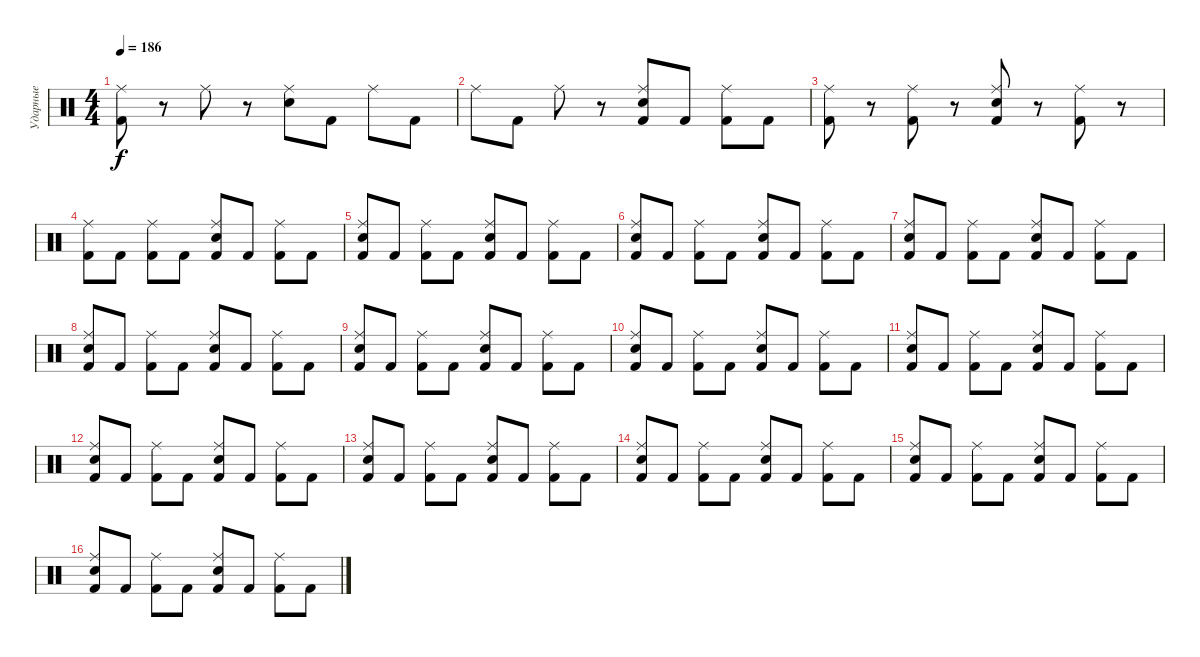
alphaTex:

\track ("Ударные" "Ударные") {instrument percussion}
\staff {score}
\articulation defaults
\ts (4 4)
\tempo 186
\clef neutral
\ks c
("Kick (hit) 2" "Ride (middle)").8{dy f} r.8 "Ride (middle)".8 r.8 ("Snare (hit) 2" "Ride (middle)").8 "Kick (hit) 2".8 "Ride (middle)".8 "Kick (hit) 2".8 |
"Ride (middle)".8 "Kick (hit) 2".8 "Ride (middle)".8 r.8 ("Kick (hit) 2" "Snare (hit) 2" "Ride (middle)").8 "Kick (hit) 2".8 ("Kick (hit) 2" "Ride (middle)").8 "Kick (hit) 2".8 |
("Kick (hit) 2" "Ride (middle)").8 r.8 ("Kick (hit) 2" "Ride (middle)").8 r.8 ("Kick (hit) 2" "Snare (hit) 2" "Ride (middle)").8 r.8 ("Kick (hit) 2" "Ride (middle)").8 r.8 |
("Kick (hit) 2" "Ride (middle)").8 "Kick (hit) 2".8 ("Kick (hit) 2" "Ride (middle)").8 "Kick (hit) 2".8 ("Kick (hit) 2" "Snare (hit) 2" "Ride (middle)").8 "Kick (hit) 2".8 ("Kick (hit) 2" "Ride (middle)").8 "Kick (hit) 2".8 |
("Ride (middle)" "Snare (hit) 2" "Kick (hit) 2").8 "Kick (hit) 2".8 ("Ride (middle)" "Kick (hit) 2").8 "Kick (hit) 2".8 ("Ride (middle)" "Snare (hit) 2" "Kick (hit) 2").8 "Kick (hit) 2".8 ("Ride (middle)" "Kick (hit) 2").8 "Kick (hit) 2".8 |
("Ride (middle)" "Snare (hit) 2" "Kick (hit) 2").8 "Kick (hit) 2".8 ("Ride (middle)" "Kick (hit) 2").8 "Kick (hit) 2".8 ("Ride (middle)" "Snare (hit) 2" "Kick (hit) 2").8 "Kick (hit) 2".8 ("Ride (middle)" "Kick (hit) 2").8 "Kick (hit) 2".8 |
("Ride (middle)" "Snare (hit) 2" "Kick (hit) 2").8 "Kick (hit) 2".8 ("Ride (middle)" "Kick (hit) 2").8 "Kick (hit) 2".8 ("Ride (middle)" "Snare (hit) 2" "Kick (hit) 2").8 "Kick (hit) 2".8 ("Ride (middle)" "Kick (hit) 2").8 "Kick (hit) 2".8 |
("Ride (middle)" "Snare (hit) 2" "Kick (hit) 2").8 "Kick (hit) 2".8 ("Ride (middle)" "Kick (hit) 2").8 "Kick (hit) 2".8 ("Ride (middle)" "Snare (hit) 2" "Kick (hit) 2").8 "Kick (hit) 2".8 ("Ride (middle)" "Kick (hit) 2").8 "Kick (hit) 2".8 |
("Ride (middle)" "Snare (hit) 2" "Kick (hit) 2").8 "Kick (hit) 2".8 ("Ride (middle)" "Kick (hit) 2").8 "Kick (hit) 2".8 ("Ride (middle)" "Snare (hit) 2" "Kick (hit) 2").8 "Kick (hit) 2".8 ("Ride (middle)" "Kick (hit) 2").8 "Kick (hit) 2".8 |
("Ride (middle)" "Snare (hit) 2" "Kick (hit) 2").8 "Kick (hit) 2".8 ("Ride (middle)" "Kick (hit) 2").8 "Kick (hit) 2".8 ("Ride (middle)" "Snare (hit) 2" "Kick (hit) 2").8 "Kick (hit) 2".8 ("Ride (middle)" "Kick (hit) 2").8 "Kick (hit) 2".8 |
("Ride (middle)" "Snare (hit) 2" "Kick (hit) 2").8 "Kick (hit) 2".8 ("Ride (middle)" "Kick (hit) 2").8 "Kick (hit) 2".8 ("Ride (middle)" "Snare (hit) 2" "Kick (hit) 2").8 "Kick (hit) 2".8 ("Ride (middle)" "Kick (hit) 2").8 "Kick (hit) 2".8 |
("Ride (middle)" "Snare (hit) 2" "Kick (hit) 2").8 "Kick (hit) 2".8 ("Ride (middle)" "Kick (hit) 2").8 "Kick (hit) 2".8 ("Ride (middle)" "Snare (hit) 2" "Kick (hit) 2").8 "Kick (hit) 2".8 ("Ride (middle)" "Kick (hit) 2").8 "Kick (hit) 2".8 |
("Ride (middle)" "Snare (hit) 2" "Kick (hit) 2").8 "Kick (hit) 2".8 ("Ride (middle)" "Kick (hit) 2").8 "Kick (hit) 2".8 ("Ride (middle)" "Snare (hit) 2" "Kick (hit) 2").8 "Kick (hit) 2".8 ("Ride (middle)" "Kick (hit) 2").8 "Kick (hit) 2".8 |
("Ride (middle)" "Snare (hit) 2" "Kick (hit) 2").8 "Kick (hit) 2".8 ("Ride (middle)" "Kick (hit) 2").8 "Kick (hit) 2".8 ("Ride (middle)" "Snare (hit) 2" "Kick (hit) 2").8 "Kick (hit) 2".8 ("Ride (middle)" "Kick (hit) 2").8 "Kick (hit) 2".8 |
("Ride (middle)" "Snare (hit) 2" "Kick (hit) 2").8 "Kick (hit) 2".8 ("Ride (middle)" "Kick (hit) 2").8 "Kick (hit) 2".8 ("Ride (middle)" "Snare (hit) 2" "Kick (hit) 2").8 "Kick (hit) 2".8 ("Ride (middle)" "Kick (hit) 2").8 "Kick (hit) 2".8 |
("Ride (middle)" "Snare (hit) 2" "Kick (hit) 2").8 "Kick (hit) 2".8 ("Ride (middle)" "Kick (hit) 2").8 "Kick (hit) 2".8 ("Ride (middle)" "Snare (hit) 2" "Kick (hit) 2").8 "Kick (hit) 2".8 ("Ride (middle)" "Kick (hit) 2").8 "Kick (hit) 2".8
